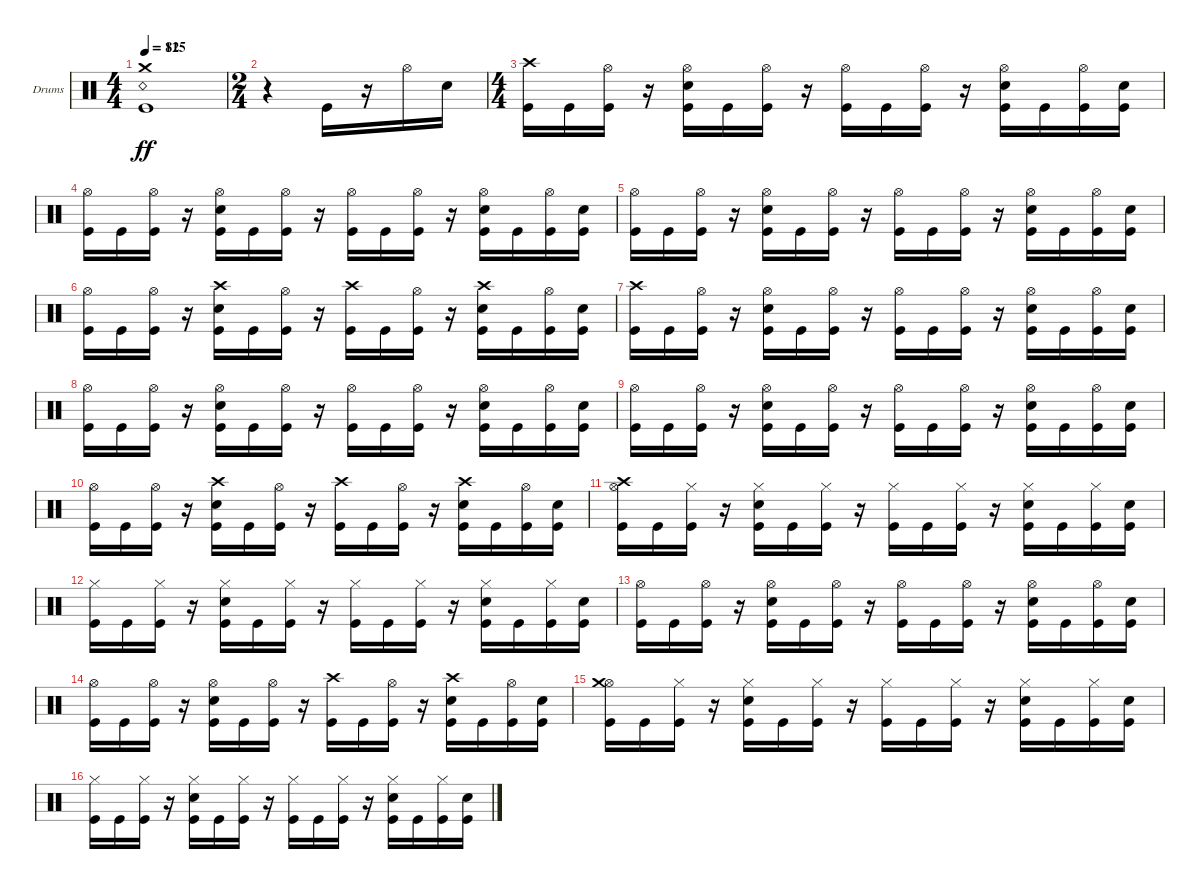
\bracketExtendMode groupsimilarinstruments
\firstSystemTrackNameOrientation horizontal
\otherSystemsTrackNameOrientation horizontal
\track ("Drumkit" "Drums") {instrument percussion}
\staff {score}
\articulation defaults
\ts (4 4)
\tempo 115
\tempo (82 0.00625)
\clef neutral
\ks c
("Crash medium (hit)" "Kick (hit)" "Snare (rim shot)").1{dy ff} |
\ts (2 4)
r.4 "Kick (hit)".16 r.16 "Hi-Hat (open)".16 "Snare (hit) 2".16 |
\ts (4 4)
("Kick (hit)" "Crash high (hit)").16 "Kick (hit)".16 ("Kick (hit)" "Hi-Hat (open)").16 r.16 ("Kick (hit)" "Snare (hit) 2" "Hi-Hat (open)").16 "Kick (hit)".16 ("Kick (hit)" "Hi-Hat (open)").16 r.16 ("Kick (hit)" "Hi-Hat (open)").16 "Kick (hit)".16 ("Kick (hit)" "Hi-Hat (open)").16 r.16 ("Kick (hit)" "Snare (hit) 2" "Hi-Hat (open)").16 "Kick (hit)".16 ("Kick (hit)" "Hi-Hat (open)").16 ("Kick (hit)" "Snare (hit) 2").16 |
("Kick (hit)" "Hi-Hat (open)").16 "Kick (hit)".16 ("Kick (hit)" "Hi-Hat (open)").16 r.16 ("Kick (hit)" "Snare (hit) 2" "Hi-Hat (open)").16 "Kick (hit)".16 ("Kick (hit)" "Hi-Hat (open)").16 r.16 ("Kick (hit)" "Hi-Hat (open)").16 "Kick (hit)".16 ("Kick (hit)" "Hi-Hat (open)").16 r.16 ("Kick (hit)" "Snare (hit) 2" "Hi-Hat (open)").16 "Kick (hit)".16 ("Kick (hit)" "Hi-Hat (open)").16 ("Kick (hit)" "Snare (hit) 2").16 |
("Kick (hit)" "Hi-Hat (open)").16 "Kick (hit)".16 ("Kick (hit)" "Hi-Hat (open)").16 r.16 ("Kick (hit)" "Snare (hit) 2" "Hi-Hat (open)").16 "Kick (hit)".16 ("Kick (hit)" "Hi-Hat (open)").16 r.16 ("Kick (hit)" "Hi-Hat (open)").16 "Kick (hit)".16 ("Kick (hit)" "Hi-Hat (open)").16 r.16 ("Kick (hit)" "Snare (hit) 2" "Hi-Hat (open)").16 "Kick (hit)".16 ("Kick (hit)" "Hi-Hat (open)").16 ("Kick (hit)" "Snare (hit) 2").16 |
("Kick (hit)" "Hi-Hat (open)").16 "Kick (hit)".16 ("Kick (hit)" "Hi-Hat (open)").16 r.16 ("Kick (hit)" "Snare (hit) 2" "Crash high (hit)").16 "Kick (hit)".16 ("Kick (hit)" "Hi-Hat (open)").16 r.16 ("Kick (hit)" "Crash high (hit)").16 "Kick (hit)".16 ("Kick (hit)" "Hi-Hat (open)").16 r.16 ("Kick (hit)" "Snare (hit) 2" "Crash high (hit)").16 "Kick (hit)".16 ("Kick (hit)" "Hi-Hat (open)").16 ("Kick (hit)" "Snare (hit) 2").16 |
("Kick (hit)" "Crash high (hit)").16 "Kick (hit)".16 ("Kick (hit)" "Hi-Hat (open)").16 r.16 ("Kick (hit)" "Snare (hit) 2" "Hi-Hat (open)").16 "Kick (hit)".16 ("Kick (hit)" "Hi-Hat (open)").16 r.16 ("Kick (hit)" "Hi-Hat (open)").16 "Kick (hit)".16 ("Kick (hit)" "Hi-Hat (open)").16 r.16 ("Kick (hit)" "Snare (hit) 2" "Hi-Hat (open)").16 "Kick (hit)".16 ("Kick (hit)" "Hi-Hat (open)").16 ("Kick (hit)" "Snare (hit) 2").16 |
("Kick (hit)" "Hi-Hat (open)").16 "Kick (hit)".16 ("Kick (hit)" "Hi-Hat (open)").16 r.16 ("Kick (hit)" "Snare (hit) 2" "Hi-Hat (open)").16 "Kick (hit)".16 ("Kick (hit)" "Hi-Hat (open)").16 r.16 ("Kick (hit)" "Hi-Hat (open)").16 "Kick (hit)".16 ("Kick (hit)" "Hi-Hat (open)").16 r.16 ("Kick (hit)" "Snare (hit) 2" "Hi-Hat (open)").16 "Kick (hit)".16 ("Kick (hit)" "Hi-Hat (open)").16 ("Kick (hit)" "Snare (hit) 2").16 |
("Kick (hit)" "Hi-Hat (open)").16 "Kick (hit)".16 ("Kick (hit)" "Hi-Hat (open)").16 r.16 ("Kick (hit)" "Snare (hit) 2" "Hi-Hat (open)").16 "Kick (hit)".16 ("Kick (hit)" "Hi-Hat (open)").16 r.16 ("Kick (hit)" "Hi-Hat (open)").16 "Kick (hit)".16 ("Kick (hit)" "Hi-Hat (open)").16 r.16 ("Kick (hit)" "Snare (hit) 2" "Hi-Hat (open)").16 "Kick (hit)".16 ("Kick (hit)" "Hi-Hat (open)").16 ("Kick (hit)" "Snare (hit) 2").16 |
("Kick (hit)" "Hi-Hat (open)").16 "Kick (hit)".16 ("Kick (hit)" "Hi-Hat (open)").16 r.16 ("Kick (hit)" "Snare (hit) 2" "Crash high (hit)").16 "Kick (hit)".16 ("Kick (hit)" "Hi-Hat (open)").16 r.16 ("Kick (hit)" "Crash high (hit)").16 "Kick (hit)".16 ("Kick (hit)" "Hi-Hat (open)").16 r.16 ("Kick (hit)" "Snare (hit) 2" "Crash high (hit)").16 "Kick (hit)".16 ("Kick (hit)" "Hi-Hat (open)").16 ("Kick (hit)" "Snare (hit) 2").16 |
("Kick (hit)" "Hi-Hat (open)" "Crash high (hit)").16 "Kick (hit)".16 ("Kick (hit)" "Hi-Hat (closed)").16 r.16 ("Kick (hit)" "Snare (hit) 2" "Hi-Hat (closed)").16 "Kick (hit)".16 ("Kick (hit)" "Hi-Hat (closed)").16 r.16 ("Kick (hit)" "Hi-Hat (closed)").16 "Kick (hit)".16 ("Kick (hit)" "Hi-Hat (closed)").16 r.16 ("Kick (hit)" "Snare (hit) 2" "Hi-Hat (closed)").16 "Kick (hit)".16 ("Kick (hit)" "Hi-Hat (closed)").16 ("Kick (hit)" "Snare (hit) 2").16 |
("Kick (hit)" "Hi-Hat (closed)").16 "Kick (hit)".16 ("Kick (hit)" "Hi-Hat (closed)").16 r.16 ("Kick (hit)" "Snare (hit) 2" "Hi-Hat (closed)").16 "Kick (hit)".16 ("Kick (hit)" "Hi-Hat (closed)").16 r.16 ("Kick (hit)" "Hi-Hat (closed)").16 "Kick (hit)".16 ("Kick (hit)" "Hi-Hat (closed)").16 r.16 ("Kick (hit)" "Snare (hit) 2" "Hi-Hat (closed)").16 "Kick (hit)".16 ("Kick (hit)" "Hi-Hat (closed)").16 ("Kick (hit)" "Snare (hit) 2").16 |
("Kick (hit)" "Hi-Hat (open)").16 "Kick (hit)".16 ("Kick (hit)" "Hi-Hat (open)").16 r.16 ("Kick (hit)" "Snare (hit) 2" "Hi-Hat (open)").16 "Kick (hit)".16 ("Kick (hit)" "Hi-Hat (open)").16 r.16 ("Kick (hit)" "Hi-Hat (open)").16 "Kick (hit)".16 ("Kick (hit)" "Hi-Hat (open)").16 r.16 ("Kick (hit)" "Snare (hit) 2" "Hi-Hat (open)").16 "Kick (hit)".16 ("Kick (hit)" "Hi-Hat (open)").16 ("Kick (hit)" "Snare (hit) 2").16 |
("Kick (hit)" "Hi-Hat (open)").16 "Kick (hit)".16 ("Kick (hit)" "Hi-Hat (open)").16 r.16 ("Kick (hit)" "Snare (hit) 2" "Hi-Hat (open)").16 "Kick (hit)".16 ("Kick (hit)" "Hi-Hat (open)").16 r.16 ("Kick (hit)" "Crash high (hit)").16 "Kick (hit)".16 ("Kick (hit)" "Hi-Hat (open)").16 r.16 ("Kick (hit)" "Snare (hit) 2" "Crash high (hit)").16 "Kick (hit)".16 ("Kick (hit)" "Hi-Hat (open)").16 ("Kick (hit)" "Snare (hit) 2").16 |
("Kick (hit)" "Hi-Hat (open)" "Crash medium (hit)").16 "Kick (hit)".16 ("Kick (hit)" "Hi-Hat (closed)").16 r.16 ("Kick (hit)" "Snare (hit) 2" "Hi-Hat (closed)").16 "Kick (hit)".16 ("Kick (hit)" "Hi-Hat (closed)").16 r.16 ("Kick (hit)" "Hi-Hat (closed)").16 "Kick (hit)".16 ("Kick (hit)" "Hi-Hat (closed)").16 r.16 ("Kick (hit)" "Snare (hit) 2" "Hi-Hat (closed)").16 "Kick (hit)".16 ("Kick (hit)" "Hi-Hat (closed)").16 ("Kick (hit)" "Snare (hit) 2").16 |
("Kick (hit)" "Hi-Hat (closed)").16 "Kick (hit)".16 ("Kick (hit)" "Hi-Hat (closed)").16 r.16 ("Kick (hit)" "Snare (hit) 2" "Hi-Hat (closed)").16 "Kick (hit)".16 ("Kick (hit)" "Hi-Hat (closed)").16 r.16 ("Kick (hit)" "Hi-Hat (closed)").16 "Kick (hit)".16 ("Kick (hit)" "Hi-Hat (closed)").16 r.16 ("Kick (hit)" "Snare (hit) 2" "Hi-Hat (closed)").16 "Kick (hit)".16 ("Kick (hit)" "Hi-Hat (closed)").16 ("Kick (hit)" "Snare (hit) 2").16
